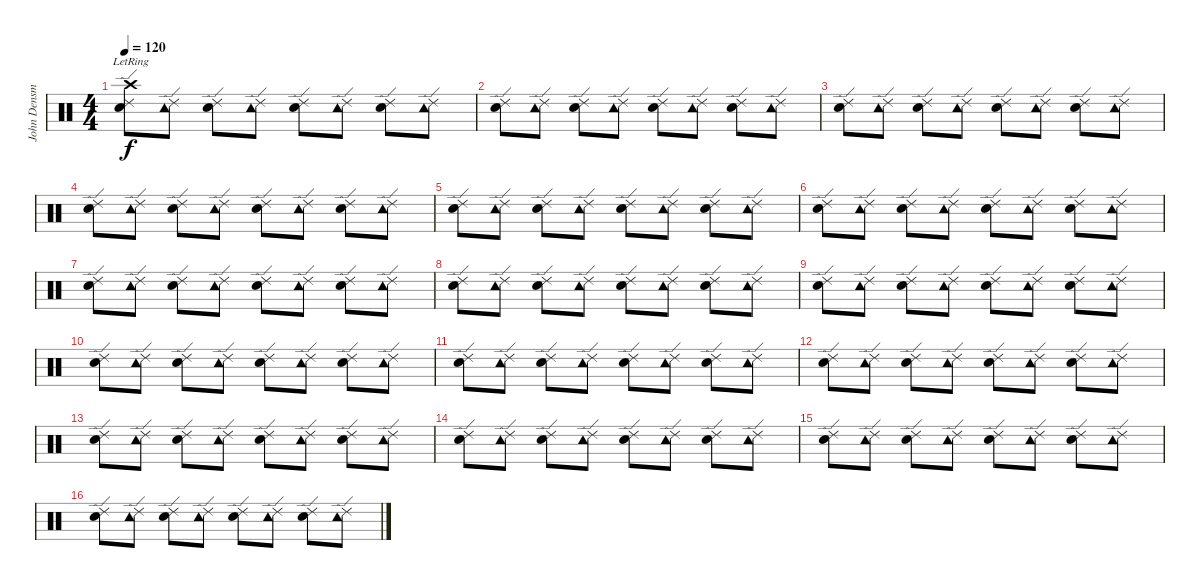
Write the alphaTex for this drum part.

\track ("John Densmore" "John Densm") {instrument percussion}
\staff {score}
\articulation defaults
\ts (4 4)
\tempo 120
\clef neutral
\ks c
("Crash high (hit)"{lr} "Ride (edge) 2" "Electric Snare (hit)").8{dy f} ("Ride (edge) 2" "Tambourine (hit)").8 ("Ride (edge) 2" "Snare (hit) 2").8 ("Ride (edge) 2" "Tambourine (hit)").8 ("Ride (edge) 2" "Electric Snare (hit)").8 ("Ride (edge) 2" "Tambourine (hit)").8 ("Ride (edge) 2" "Snare (hit) 2").8 ("Ride (edge) 2" "Tambourine (hit)").8 |
("Ride (edge) 2" "Electric Snare (hit)").8 ("Ride (edge) 2" "Tambourine (hit)").8 ("Ride (edge) 2" "Snare (hit) 2").8 ("Ride (edge) 2" "Tambourine (hit)").8 ("Ride (edge) 2" "Electric Snare (hit)").8 ("Ride (edge) 2" "Tambourine (hit)").8 ("Ride (edge) 2" "Snare (hit) 2").8 ("Ride (edge) 2" "Tambourine (hit)").8 |
("Ride (edge) 2" "Electric Snare (hit)").8 ("Ride (edge) 2" "Tambourine (hit)").8 ("Ride (edge) 2" "Snare (hit) 2").8 ("Ride (edge) 2" "Tambourine (hit)").8 ("Ride (edge) 2" "Electric Snare (hit)").8 ("Ride (edge) 2" "Tambourine (hit)").8 ("Ride (edge) 2" "Snare (hit) 2").8 ("Ride (edge) 2" "Tambourine (hit)").8 |
("Ride (edge) 2" "Electric Snare (hit)").8 ("Ride (edge) 2" "Tambourine (hit)").8 ("Ride (edge) 2" "Snare (hit) 2").8 ("Ride (edge) 2" "Tambourine (hit)").8 ("Ride (edge) 2" "Electric Snare (hit)").8 ("Ride (edge) 2" "Tambourine (hit)").8 ("Ride (edge) 2" "Snare (hit) 2").8 ("Ride (edge) 2" "Tambourine (hit)").8 |
("Ride (edge) 2" "Electric Snare (hit)").8 ("Ride (edge) 2" "Tambourine (hit)").8 ("Ride (edge) 2" "Snare (hit) 2").8 ("Ride (edge) 2" "Tambourine (hit)").8 ("Ride (edge) 2" "Electric Snare (hit)").8 ("Ride (edge) 2" "Tambourine (hit)").8 ("Ride (edge) 2" "Snare (hit) 2").8 ("Ride (edge) 2" "Tambourine (hit)").8 |
("Ride (edge) 2" "Electric Snare (hit)").8 ("Ride (edge) 2" "Tambourine (hit)").8 ("Ride (edge) 2" "Snare (hit) 2").8 ("Ride (edge) 2" "Tambourine (hit)").8 ("Ride (edge) 2" "Electric Snare (hit)").8 ("Ride (edge) 2" "Tambourine (hit)").8 ("Ride (edge) 2" "Snare (hit) 2").8 ("Ride (edge) 2" "Tambourine (hit)").8 |
("Ride (edge) 2" "Electric Snare (hit)").8 ("Ride (edge) 2" "Tambourine (hit)").8 ("Ride (edge) 2" "Snare (hit) 2").8 ("Ride (edge) 2" "Tambourine (hit)").8 ("Ride (edge) 2" "Electric Snare (hit)").8 ("Ride (edge) 2" "Tambourine (hit)").8 ("Ride (edge) 2" "Snare (hit) 2").8 ("Ride (edge) 2" "Tambourine (hit)").8 |
("Ride (edge) 2" "Electric Snare (hit)").8 ("Ride (edge) 2" "Tambourine (hit)").8 ("Ride (edge) 2" "Snare (hit) 2").8 ("Ride (edge) 2" "Tambourine (hit)").8 ("Ride (edge) 2" "Electric Snare (hit)").8 ("Ride (edge) 2" "Tambourine (hit)").8 ("Ride (edge) 2" "Snare (hit) 2").8 ("Ride (edge) 2" "Tambourine (hit)").8 |
("Ride (edge) 2" "Electric Snare (hit)").8 ("Ride (edge) 2" "Tambourine (hit)").8 ("Ride (edge) 2" "Snare (hit) 2").8 ("Ride (edge) 2" "Tambourine (hit)").8 ("Ride (edge) 2" "Electric Snare (hit)").8 ("Ride (edge) 2" "Tambourine (hit)").8 ("Ride (edge) 2" "Snare (hit) 2").8 ("Ride (edge) 2" "Tambourine (hit)").8 |
("Ride (edge) 2" "Electric Snare (hit)").8 ("Ride (edge) 2" "Tambourine (hit)").8 ("Ride (edge) 2" "Snare (hit) 2").8 ("Ride (edge) 2" "Tambourine (hit)").8 ("Ride (edge) 2" "Electric Snare (hit)").8 ("Ride (edge) 2" "Tambourine (hit)").8 ("Ride (edge) 2" "Snare (hit) 2").8 ("Ride (edge) 2" "Tambourine (hit)").8 |
("Ride (edge) 2" "Electric Snare (hit)").8 ("Ride (edge) 2" "Tambourine (hit)").8 ("Ride (edge) 2" "Snare (hit) 2").8 ("Ride (edge) 2" "Tambourine (hit)").8 ("Ride (edge) 2" "Electric Snare (hit)").8 ("Ride (edge) 2" "Tambourine (hit)").8 ("Ride (edge) 2" "Snare (hit) 2").8 ("Ride (edge) 2" "Tambourine (hit)").8 |
("Ride (edge) 2" "Electric Snare (hit)").8 ("Ride (edge) 2" "Tambourine (hit)").8 ("Ride (edge) 2" "Snare (hit) 2").8 ("Ride (edge) 2" "Tambourine (hit)").8 ("Ride (edge) 2" "Electric Snare (hit)").8 ("Ride (edge) 2" "Tambourine (hit)").8 ("Ride (edge) 2" "Snare (hit) 2").8 ("Ride (edge) 2" "Tambourine (hit)").8 |
("Ride (edge) 2" "Electric Snare (hit)").8 ("Ride (edge) 2" "Tambourine (hit)").8 ("Ride (edge) 2" "Snare (hit) 2").8 ("Ride (edge) 2" "Tambourine (hit)").8 ("Ride (edge) 2" "Electric Snare (hit)").8 ("Ride (edge) 2" "Tambourine (hit)").8 ("Ride (edge) 2" "Snare (hit) 2").8 ("Ride (edge) 2" "Tambourine (hit)").8 |
("Ride (edge) 2" "Electric Snare (hit)").8 ("Ride (edge) 2" "Tambourine (hit)").8 ("Ride (edge) 2" "Snare (hit) 2").8 ("Ride (edge) 2" "Tambourine (hit)").8 ("Ride (edge) 2" "Electric Snare (hit)").8 ("Ride (edge) 2" "Tambourine (hit)").8 ("Ride (edge) 2" "Snare (hit) 2").8 ("Ride (edge) 2" "Tambourine (hit)").8 |
("Ride (edge) 2" "Electric Snare (hit)").8 ("Ride (edge) 2" "Tambourine (hit)").8 ("Ride (edge) 2" "Snare (hit) 2").8 ("Ride (edge) 2" "Tambourine (hit)").8 ("Ride (edge) 2" "Electric Snare (hit)").8 ("Ride (edge) 2" "Tambourine (hit)").8 ("Ride (edge) 2" "Snare (hit) 2").8 ("Ride (edge) 2" "Tambourine (hit)").8 |
("Ride (edge) 2" "Electric Snare (hit)").8 ("Ride (edge) 2" "Tambourine (hit)").8 ("Ride (edge) 2" "Snare (hit) 2").8 ("Ride (edge) 2" "Tambourine (hit)").8 ("Ride (edge) 2" "Electric Snare (hit)").8 ("Ride (edge) 2" "Tambourine (hit)").8 ("Ride (edge) 2" "Snare (hit) 2").8 ("Ride (edge) 2" "Tambourine (hit)").8
